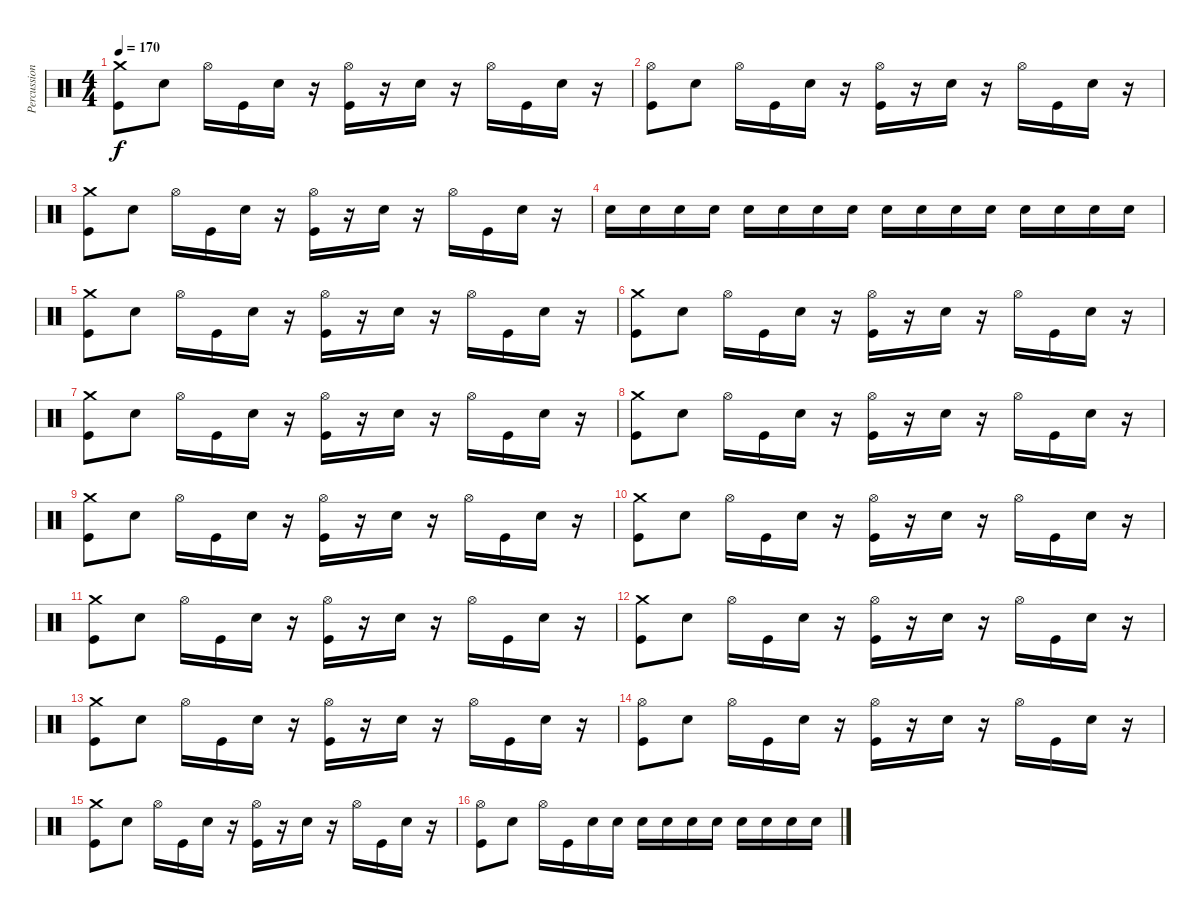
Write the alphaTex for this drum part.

\track ("Percussion [Ron]" "Percussion") {instrument percussion}
\staff {score}
\articulation defaults
\ts (4 4)
\tempo 170
\clef neutral
\ks c
("Kick (hit)" "Crash medium (hit)").8{dy f} "Snare (hit) 2".8 "Hi-Hat (open)".16 "Kick (hit)".16 "Snare (hit) 2".16 r.16 ("Kick (hit)" "Hi-Hat (open)").16 r.16 "Snare (hit) 2".16 r.16 "Hi-Hat (open)".16 "Kick (hit)".16 "Snare (hit) 2".16 r.16 |
("Kick (hit)" "Hi-Hat (open)").8 "Snare (hit) 2".8 "Hi-Hat (open)".16 "Kick (hit)".16 "Snare (hit) 2".16 r.16 ("Kick (hit)" "Hi-Hat (open)").16 r.16 "Snare (hit) 2".16 r.16 "Hi-Hat (open)".16 "Kick (hit)".16 "Snare (hit) 2".16 r.16 |
("Kick (hit)" "Crash medium (hit)").8 "Snare (hit) 2".8 "Hi-Hat (open)".16 "Kick (hit)".16 "Snare (hit) 2".16 r.16 ("Kick (hit)" "Hi-Hat (open)").16 r.16 "Snare (hit) 2".16 r.16 "Hi-Hat (open)".16 "Kick (hit)".16 "Snare (hit) 2".16 r.16 |
"Snare (hit) 2".16 "Snare (hit) 2".16 "Snare (hit) 2".16 "Snare (hit) 2".16 "Snare (hit) 2".16 "Snare (hit) 2".16 "Snare (hit) 2".16 "Snare (hit) 2".16 "Snare (hit) 2".16 "Snare (hit) 2".16 "Snare (hit) 2".16 "Snare (hit) 2".16 "Snare (hit) 2".16 "Snare (hit) 2".16 "Snare (hit) 2".16 "Snare (hit) 2".16 |
("Kick (hit)" "Crash medium (hit)").8 "Snare (hit) 2".8 "Hi-Hat (open)".16 "Kick (hit)".16 "Snare (hit) 2".16 r.16 ("Kick (hit)" "Hi-Hat (open)").16 r.16 "Snare (hit) 2".16 r.16 "Hi-Hat (open)".16 "Kick (hit)".16 "Snare (hit) 2".16 r.16 |
("Kick (hit)" "Crash medium (hit)").8 "Snare (hit) 2".8 "Hi-Hat (open)".16 "Kick (hit)".16 "Snare (hit) 2".16 r.16 ("Kick (hit)" "Hi-Hat (open)").16 r.16 "Snare (hit) 2".16 r.16 "Hi-Hat (open)".16 "Kick (hit)".16 "Snare (hit) 2".16 r.16 |
("Kick (hit)" "Crash medium (hit)").8 "Snare (hit) 2".8 "Hi-Hat (open)".16 "Kick (hit)".16 "Snare (hit) 2".16 r.16 ("Kick (hit)" "Hi-Hat (open)").16 r.16 "Snare (hit) 2".16 r.16 "Hi-Hat (open)".16 "Kick (hit)".16 "Snare (hit) 2".16 r.16 |
("Kick (hit)" "Crash medium (hit)").8 "Snare (hit) 2".8 "Hi-Hat (open)".16 "Kick (hit)".16 "Snare (hit) 2".16 r.16 ("Kick (hit)" "Hi-Hat (open)").16 r.16 "Snare (hit) 2".16 r.16 "Hi-Hat (open)".16 "Kick (hit)".16 "Snare (hit) 2".16 r.16 |
("Kick (hit)" "Crash medium (hit)").8 "Snare (hit) 2".8 "Hi-Hat (open)".16 "Kick (hit)".16 "Snare (hit) 2".16 r.16 ("Kick (hit)" "Hi-Hat (open)").16 r.16 "Snare (hit) 2".16 r.16 "Hi-Hat (open)".16 "Kick (hit)".16 "Snare (hit) 2".16 r.16 |
("Kick (hit)" "Crash medium (hit)").8 "Snare (hit) 2".8 "Hi-Hat (open)".16 "Kick (hit)".16 "Snare (hit) 2".16 r.16 ("Kick (hit)" "Hi-Hat (open)").16 r.16 "Snare (hit) 2".16 r.16 "Hi-Hat (open)".16 "Kick (hit)".16 "Snare (hit) 2".16 r.16 |
("Kick (hit)" "Crash medium (hit)").8 "Snare (hit) 2".8 "Hi-Hat (open)".16 "Kick (hit)".16 "Snare (hit) 2".16 r.16 ("Kick (hit)" "Hi-Hat (open)").16 r.16 "Snare (hit) 2".16 r.16 "Hi-Hat (open)".16 "Kick (hit)".16 "Snare (hit) 2".16 r.16 |
("Kick (hit)" "Crash medium (hit)").8 "Snare (hit) 2".8 "Hi-Hat (open)".16 "Kick (hit)".16 "Snare (hit) 2".16 r.16 ("Kick (hit)" "Hi-Hat (open)").16 r.16 "Snare (hit) 2".16 r.16 "Hi-Hat (open)".16 "Kick (hit)".16 "Snare (hit) 2".16 r.16 |
("Kick (hit)" "Crash medium (hit)").8 "Snare (hit) 2".8 "Hi-Hat (open)".16 "Kick (hit)".16 "Snare (hit) 2".16 r.16 ("Kick (hit)" "Hi-Hat (open)").16 r.16 "Snare (hit) 2".16 r.16 "Hi-Hat (open)".16 "Kick (hit)".16 "Snare (hit) 2".16 r.16 |
("Kick (hit)" "Hi-Hat (open)").8 "Snare (hit) 2".8 "Hi-Hat (open)".16 "Kick (hit)".16 "Snare (hit) 2".16 r.16 ("Kick (hit)" "Hi-Hat (open)").16 r.16 "Snare (hit) 2".16 r.16 "Hi-Hat (open)".16 "Kick (hit)".16 "Snare (hit) 2".16 r.16 |
("Kick (hit)" "Crash medium (hit)").8 "Snare (hit) 2".8 "Hi-Hat (open)".16 "Kick (hit)".16 "Snare (hit) 2".16 r.16 ("Kick (hit)" "Hi-Hat (open)").16 r.16 "Snare (hit) 2".16 r.16 "Hi-Hat (open)".16 "Kick (hit)".16 "Snare (hit) 2".16 r.16 |
("Kick (hit)" "Hi-Hat (open)").8 "Snare (hit) 2".8 "Hi-Hat (open)".16 "Kick (hit)".16 "Snare (hit) 2".16 "Snare (hit) 2".16 "Snare (hit) 2".16 "Snare (hit) 2".16 "Snare (hit) 2".16 "Snare (hit) 2".16 "Snare (hit) 2".16 "Snare (hit) 2".16 "Snare (hit) 2".16 "Snare (hit) 2".16
